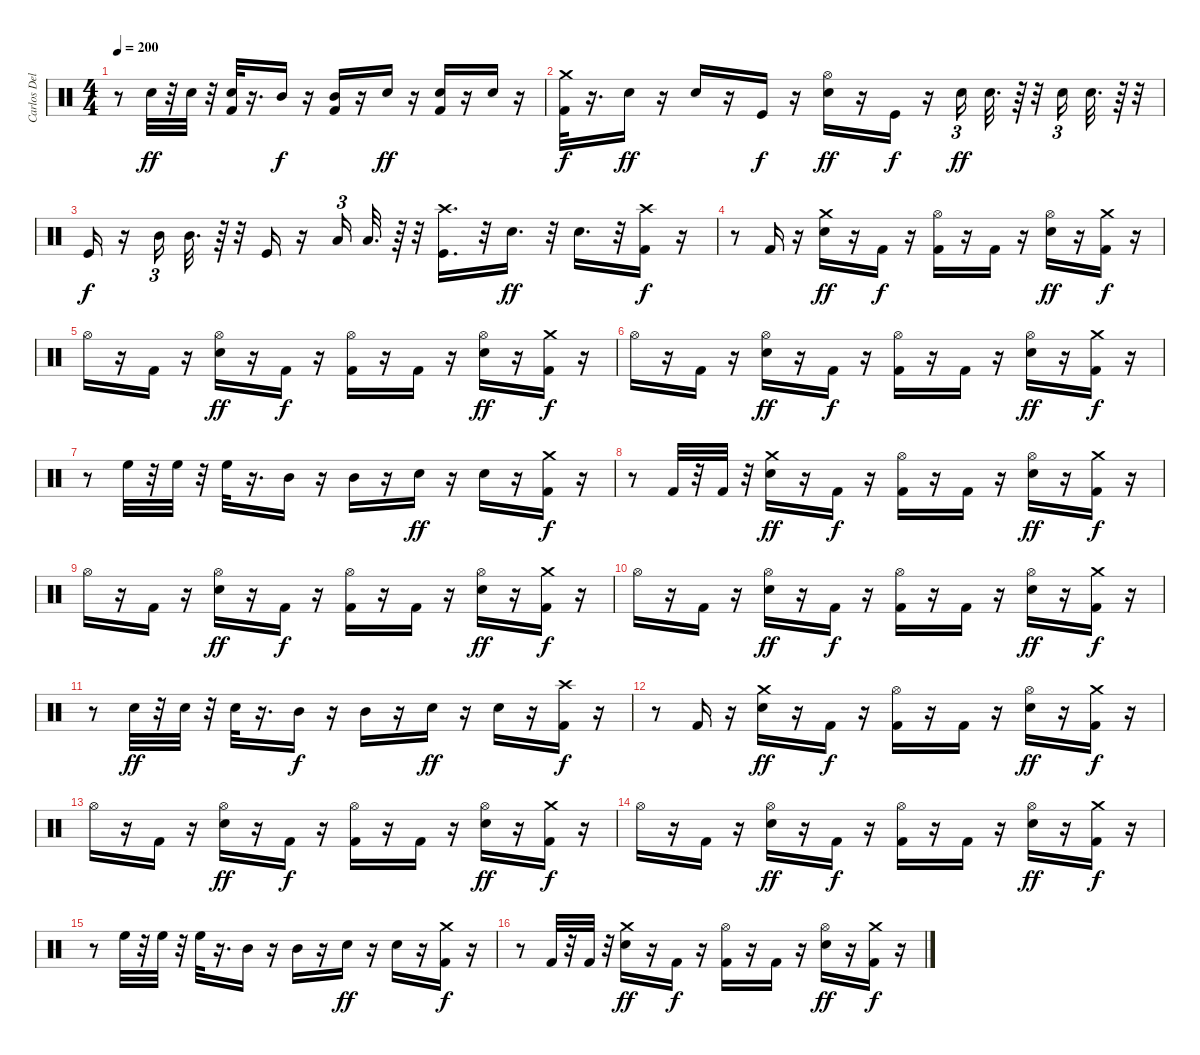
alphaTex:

\track ("Carlos Delgado" "Carlos Del") {instrument percussion}
\staff {score}
\articulation defaults
\ts (4 4)
\tempo 200
\clef neutral
\ks c
r.8{dy f} "Electric Snare (hit)".32{dy ff} r.32 "Electric Snare (hit)".32 r.32 ("Electric Snare (hit)" "Kick (hit) 2").32 r.16{d} "Mid Tom (hit)".16{dy f} r.16 ("Kick (hit) 2" "Mid Tom (hit)").16 r.16 "Electric Snare (hit)".16{dy ff} r.16 ("Kick (hit) 2" "Electric Snare (hit)").16 r.16 "Electric Snare (hit)".16 r.16 |
("Crash medium (hit)" "Kick (hit) 2").32{dy f} r.16{d} "Electric Snare (hit)".16{dy ff} r.16 "Electric Snare (hit)".16 r.16 "Kick (hit)".16{dy f} r.16 ("Electric Snare (hit)" "Hi-Hat (open)").16{dy ff} r.16 "Kick (hit)".16{dy f} r.16 "Electric Snare (hit)".16{tu (3 2) dy ff} "Electric Snare (hit)".32{d} r.64 r.32 "Electric Snare (hit)".16{tu (3 2)} "Electric Snare (hit)".32{d} r.64 r.32 |
"Kick (hit)".16{dy f} r.16 "Mid Tom (hit)".16{tu (3 2)} "Mid Tom (hit)".32{d} r.64 r.32 "Kick (hit)".16 r.16 "Low Tom (hit)".16{tu (3 2)} "Low Tom (hit)".32{d} r.64 r.32 ("Kick (hit)" "Crash high (hit)").16{d} r.32 "Electric Snare (hit)".16{d dy ff} r.32 "Electric Snare (hit)".16{d} r.32 ("Kick (hit) 2" "Crash high (hit)").16{dy f} r.16 |
r.8 "Kick (hit) 2".16 r.16 ("Crash medium (hit)" "Electric Snare (hit)").16{dy ff} r.16 "Kick (hit) 2".16{dy f} r.16 ("Kick (hit) 2" "Hi-Hat (open)").16 r.16 "Kick (hit) 2".16 r.16 ("Hi-Hat (open)" "Electric Snare (hit)").16{dy ff} r.16 ("Kick (hit) 2" "Crash medium (hit)").16{dy f} r.16 |
"Hi-Hat (open)".16 r.16 "Kick (hit) 2".16 r.16 ("Hi-Hat (open)" "Electric Snare (hit)").16{dy ff} r.16 "Kick (hit) 2".16{dy f} r.16 ("Kick (hit) 2" "Hi-Hat (open)").16 r.16 "Kick (hit) 2".16 r.16 ("Hi-Hat (open)" "Electric Snare (hit)").16{dy ff} r.16 ("Kick (hit) 2" "Crash medium (hit)").16{dy f} r.16 |
"Hi-Hat (open)".16 r.16 "Kick (hit) 2".16 r.16 ("Hi-Hat (open)" "Electric Snare (hit)").16{dy ff} r.16 "Kick (hit) 2".16{dy f} r.16 ("Hi-Hat (open)" "Kick (hit) 2").16 r.16 "Kick (hit) 2".16 r.16 ("Electric Snare (hit)" "Hi-Hat (open)").16{dy ff} r.16 ("Kick (hit) 2" "Crash medium (hit)").16{dy f} r.16 |
r.8 "High Floor Tom (hit)".32 r.32 "High Floor Tom (hit)".32 r.32 "High Floor Tom (hit)".32 r.16{d} "Mid Tom (hit)".16 r.16 "Mid Tom (hit)".16 r.16 "Electric Snare (hit)".16{dy ff} r.16 "Electric Snare (hit)".16 r.16 ("Crash medium (hit)" "Kick (hit) 2").16{dy f} r.16 |
r.8 "Kick (hit) 2".32 r.32 "Kick (hit) 2".32 r.32 ("Crash medium (hit)" "Electric Snare (hit)").16{dy ff} r.16 "Kick (hit) 2".16{dy f} r.16 ("Kick (hit) 2" "Hi-Hat (open)").16 r.16 "Kick (hit) 2".16 r.16 ("Electric Snare (hit)" "Hi-Hat (open)").16{dy ff} r.16 ("Crash medium (hit)" "Kick (hit) 2").16{dy f} r.16 |
"Hi-Hat (open)".16 r.16 "Kick (hit) 2".16 r.16 ("Hi-Hat (open)" "Electric Snare (hit)").16{dy ff} r.16 "Kick (hit) 2".16{dy f} r.16 ("Kick (hit) 2" "Hi-Hat (open)").16 r.16 "Kick (hit) 2".16 r.16 ("Electric Snare (hit)" "Hi-Hat (open)").16{dy ff} r.16 ("Kick (hit) 2" "Crash medium (hit)").16{dy f} r.16 |
"Hi-Hat (open)".16 r.16 "Kick (hit) 2".16 r.16 ("Hi-Hat (open)" "Electric Snare (hit)").16{dy ff} r.16 "Kick (hit) 2".16{dy f} r.16 ("Kick (hit) 2" "Hi-Hat (open)").16 r.16 "Kick (hit) 2".16 r.16 ("Hi-Hat (open)" "Electric Snare (hit)").16{dy ff} r.16 ("Kick (hit) 2" "Crash medium (hit)").16{dy f} r.16 |
r.8 "Electric Snare (hit)".32{dy ff} r.32 "Electric Snare (hit)".32 r.32 "Electric Snare (hit)".32 r.16{d} "Mid Tom (hit)".16{dy f} r.16 "Mid Tom (hit)".16 r.16 "Electric Snare (hit)".16{dy ff} r.16 "Electric Snare (hit)".16 r.16 ("Crash high (hit)" "Kick (hit) 2").16{dy f} r.16 |
r.8 "Kick (hit) 2".16 r.16 ("Crash medium (hit)" "Electric Snare (hit)").16{dy ff} r.16 "Kick (hit) 2".16{dy f} r.16 ("Hi-Hat (open)" "Kick (hit) 2").16 r.16 "Kick (hit) 2".16 r.16 ("Hi-Hat (open)" "Electric Snare (hit)").16{dy ff} r.16 ("Kick (hit) 2" "Crash medium (hit)").16{dy f} r.16 |
"Hi-Hat (open)".16 r.16 "Kick (hit) 2".16 r.16 ("Hi-Hat (open)" "Electric Snare (hit)").16{dy ff} r.16 "Kick (hit) 2".16{dy f} r.16 ("Kick (hit) 2" "Hi-Hat (open)").16 r.16 "Kick (hit) 2".16 r.16 ("Electric Snare (hit)" "Hi-Hat (open)").16{dy ff} r.16 ("Kick (hit) 2" "Crash medium (hit)").16{dy f} r.16 |
"Hi-Hat (open)".16 r.16 "Kick (hit) 2".16 r.16 ("Electric Snare (hit)" "Hi-Hat (open)").16{dy ff} r.16 "Kick (hit) 2".16{dy f} r.16 ("Hi-Hat (open)" "Kick (hit) 2").16 r.16 "Kick (hit) 2".16 r.16 ("Electric Snare (hit)" "Hi-Hat (open)").16{dy ff} r.16 ("Crash medium (hit)" "Kick (hit) 2").16{dy f} r.16 |
r.8 "High Floor Tom (hit)".32 r.32 "High Floor Tom (hit)".32 r.32 "High Floor Tom (hit)".32 r.16{d} "Mid Tom (hit)".16 r.16 "Mid Tom (hit)".16 r.16 "Electric Snare (hit)".16{dy ff} r.16 "Electric Snare (hit)".16 r.16 ("Crash medium (hit)" "Kick (hit) 2").16{dy f} r.16 |
r.8 "Kick (hit) 2".32 r.32 "Kick (hit) 2".32 r.32 ("Electric Snare (hit)" "Crash medium (hit)").16{dy ff} r.16 "Kick (hit) 2".16{dy f} r.16 ("Hi-Hat (open)" "Kick (hit) 2").16 r.16 "Kick (hit) 2".16 r.16 ("Electric Snare (hit)" "Hi-Hat (open)").16{dy ff} r.16 ("Kick (hit) 2" "Crash medium (hit)").16{dy f} r.16
